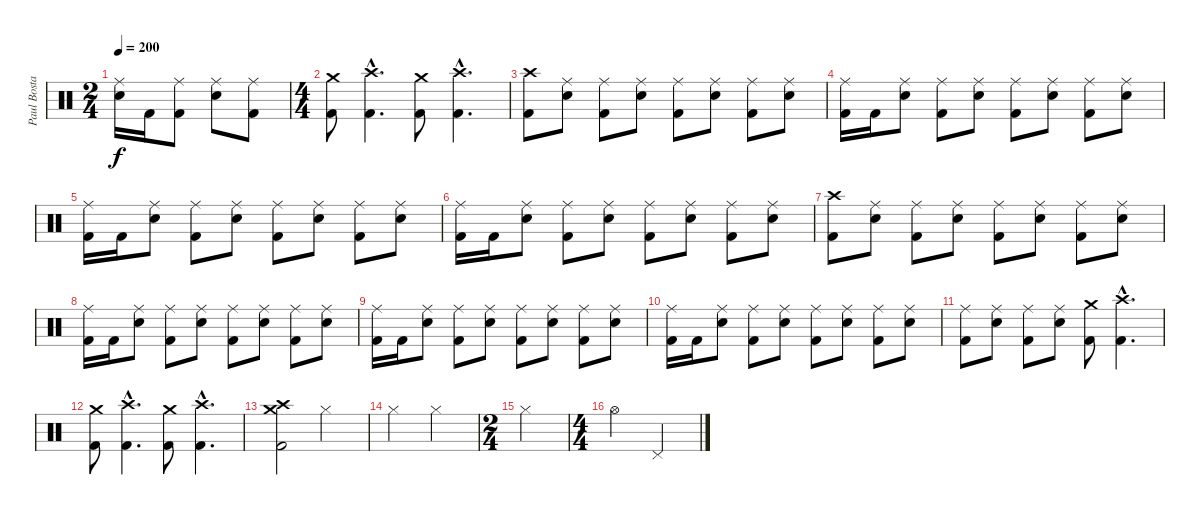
\track ("Paul Bostaph" "Paul Bosta") {instrument percussion}
\staff {score}
\articulation defaults
\ts (2 4)
\tempo 200
\clef neutral
\ks c
("Electric Snare (hit)" "Ride (middle)").16{dy f} "Kick (hit) 2".16 ("Kick (hit) 2" "Ride (middle)").8 ("Electric Snare (hit)" "Ride (middle)").8 ("Kick (hit) 2" "Ride (middle)").8 |
\ts (4 4)
("Crash medium (hit)" "Kick (hit) 2").8 ("Crash high (hit)"{hac} "Kick (hit) 2"{hac}).4{d} ("Crash medium (hit)" "Kick (hit) 2").8 ("Crash high (hit)"{hac} "Kick (hit) 2"{hac}).4{d} |
("Kick (hit) 2" "Crash high (hit)").8 ("Electric Snare (hit)" "Ride (middle)").8 ("Kick (hit) 2" "Ride (middle)").8 ("Electric Snare (hit)" "Ride (middle)").8 ("Kick (hit) 2" "Ride (middle)").8 ("Electric Snare (hit)" "Ride (middle)").8 ("Kick (hit) 2" "Ride (middle)").8 ("Electric Snare (hit)" "Ride (middle)").8 |
("Kick (hit) 2" "Ride (middle)").16 "Kick (hit) 2".16 ("Electric Snare (hit)" "Ride (middle)").8 ("Kick (hit) 2" "Ride (middle)").8 ("Electric Snare (hit)" "Ride (middle)").8 ("Kick (hit) 2" "Ride (middle)").8 ("Electric Snare (hit)" "Ride (middle)").8 ("Kick (hit) 2" "Ride (middle)").8 ("Electric Snare (hit)" "Ride (middle)").8 |
("Kick (hit) 2" "Ride (middle)").16 "Kick (hit) 2".16 ("Electric Snare (hit)" "Ride (middle)").8 ("Kick (hit) 2" "Ride (middle)").8 ("Electric Snare (hit)" "Ride (middle)").8 ("Kick (hit) 2" "Ride (middle)").8 ("Electric Snare (hit)" "Ride (middle)").8 ("Kick (hit) 2" "Ride (middle)").8 ("Electric Snare (hit)" "Ride (middle)").8 |
("Kick (hit) 2" "Ride (middle)").16 "Kick (hit) 2".16 ("Electric Snare (hit)" "Ride (middle)").8 ("Kick (hit) 2" "Ride (middle)").8 ("Electric Snare (hit)" "Ride (middle)").8 ("Kick (hit) 2" "Ride (middle)").8 ("Electric Snare (hit)" "Ride (middle)").8 ("Kick (hit) 2" "Ride (middle)").8 ("Electric Snare (hit)" "Ride (middle)").8 |
("Kick (hit) 2" "Crash high (hit)").8 ("Electric Snare (hit)" "Ride (middle)").8 ("Kick (hit) 2" "Ride (middle)").8 ("Electric Snare (hit)" "Ride (middle)").8 ("Kick (hit) 2" "Ride (middle)").8 ("Electric Snare (hit)" "Ride (middle)").8 ("Kick (hit) 2" "Ride (middle)").8 ("Electric Snare (hit)" "Ride (middle)").8 |
("Kick (hit) 2" "Ride (middle)").16 "Kick (hit) 2".16 ("Electric Snare (hit)" "Ride (middle)").8 ("Kick (hit) 2" "Ride (middle)").8 ("Electric Snare (hit)" "Ride (middle)").8 ("Kick (hit) 2" "Ride (middle)").8 ("Electric Snare (hit)" "Ride (middle)").8 ("Kick (hit) 2" "Ride (middle)").8 ("Electric Snare (hit)" "Ride (middle)").8 |
("Kick (hit) 2" "Ride (middle)").16 "Kick (hit) 2".16 ("Electric Snare (hit)" "Ride (middle)").8 ("Kick (hit) 2" "Ride (middle)").8 ("Electric Snare (hit)" "Ride (middle)").8 ("Kick (hit) 2" "Ride (middle)").8 ("Electric Snare (hit)" "Ride (middle)").8 ("Kick (hit) 2" "Ride (middle)").8 ("Electric Snare (hit)" "Ride (middle)").8 |
("Kick (hit) 2" "Ride (middle)").16 "Kick (hit) 2".16 ("Electric Snare (hit)" "Ride (middle)").8 ("Kick (hit) 2" "Ride (middle)").8 ("Electric Snare (hit)" "Ride (middle)").8 ("Kick (hit) 2" "Ride (middle)").8 ("Electric Snare (hit)" "Ride (middle)").8 ("Kick (hit) 2" "Ride (middle)").8 ("Electric Snare (hit)" "Ride (middle)").8 |
("Kick (hit) 2" "Ride (middle)").8 ("Electric Snare (hit)" "Ride (middle)").8 ("Kick (hit) 2" "Ride (middle)").8 ("Electric Snare (hit)" "Ride (middle)").8 ("Crash medium (hit)" "Kick (hit) 2").8 ("Crash high (hit)"{hac} "Kick (hit) 2"{hac}).4{d} |
("Crash medium (hit)" "Kick (hit) 2").8 ("Crash high (hit)"{hac} "Kick (hit) 2"{hac}).4{d} ("Crash medium (hit)" "Kick (hit) 2").8 ("Crash high (hit)"{hac} "Kick (hit) 2"{hac}).4{d} |
("Crash high (hit)" "Crash medium (hit)" "Kick (hit) 2").2 "Hi-Hat (closed)".2 |
"Hi-Hat (closed)".2 "Hi-Hat (closed)".2 |
\ts (2 4)
"Hi-Hat (closed)".2 |
\ts (4 4)
"Hi-Hat (open)".2 "Pedal Hi-Hat (hit)".2
